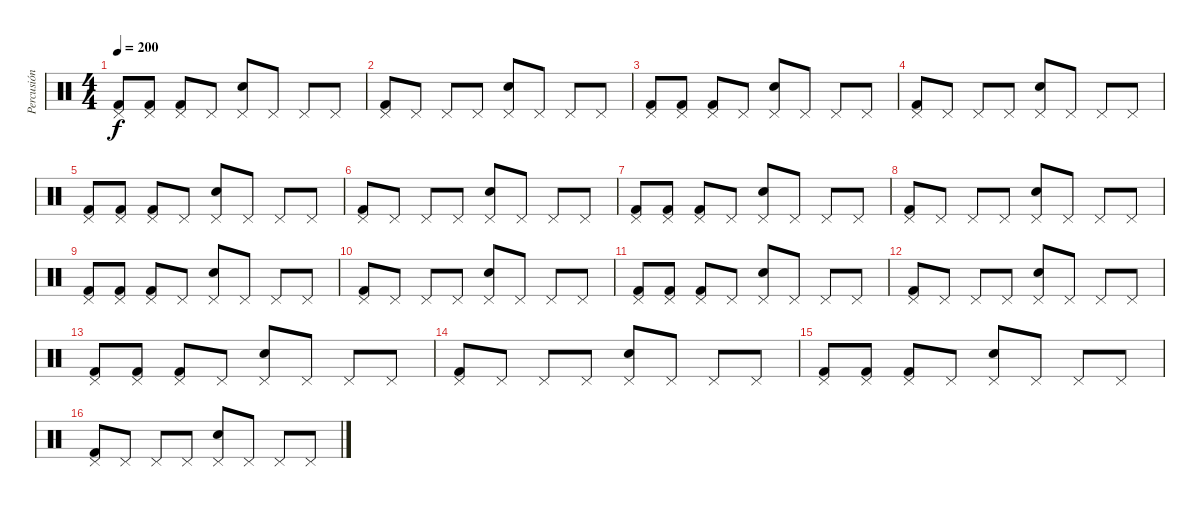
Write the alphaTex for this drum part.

\track ("Percusión" "Percusión") {instrument percussion}
\staff {score}
\articulation defaults
\ts (4 4)
\tempo 200
\clef neutral
\ks c
("Kick (hit) 2" "Pedal Hi-Hat (hit)").8{dy f} ("Kick (hit) 2" "Pedal Hi-Hat (hit)").8 ("Kick (hit) 2" "Pedal Hi-Hat (hit)").8 "Pedal Hi-Hat (hit)".8 ("Electric Snare (hit)" "Pedal Hi-Hat (hit)").8 "Pedal Hi-Hat (hit)".8 "Pedal Hi-Hat (hit)".8 "Pedal Hi-Hat (hit)".8 |
("Kick (hit) 2" "Pedal Hi-Hat (hit)").8 "Pedal Hi-Hat (hit)".8 "Pedal Hi-Hat (hit)".8 "Pedal Hi-Hat (hit)".8 ("Electric Snare (hit)" "Pedal Hi-Hat (hit)").8 "Pedal Hi-Hat (hit)".8 "Pedal Hi-Hat (hit)".8 "Pedal Hi-Hat (hit)".8 |
("Kick (hit) 2" "Pedal Hi-Hat (hit)").8 ("Kick (hit) 2" "Pedal Hi-Hat (hit)").8 ("Kick (hit) 2" "Pedal Hi-Hat (hit)").8 "Pedal Hi-Hat (hit)".8 ("Electric Snare (hit)" "Pedal Hi-Hat (hit)").8 "Pedal Hi-Hat (hit)".8 "Pedal Hi-Hat (hit)".8 "Pedal Hi-Hat (hit)".8 |
("Kick (hit) 2" "Pedal Hi-Hat (hit)").8 "Pedal Hi-Hat (hit)".8 "Pedal Hi-Hat (hit)".8 "Pedal Hi-Hat (hit)".8 ("Electric Snare (hit)" "Pedal Hi-Hat (hit)").8 "Pedal Hi-Hat (hit)".8 "Pedal Hi-Hat (hit)".8 "Pedal Hi-Hat (hit)".8 |
("Kick (hit) 2" "Pedal Hi-Hat (hit)").8 ("Kick (hit) 2" "Pedal Hi-Hat (hit)").8 ("Kick (hit) 2" "Pedal Hi-Hat (hit)").8 "Pedal Hi-Hat (hit)".8 ("Electric Snare (hit)" "Pedal Hi-Hat (hit)").8 "Pedal Hi-Hat (hit)".8 "Pedal Hi-Hat (hit)".8 "Pedal Hi-Hat (hit)".8 |
("Kick (hit) 2" "Pedal Hi-Hat (hit)").8 "Pedal Hi-Hat (hit)".8 "Pedal Hi-Hat (hit)".8 "Pedal Hi-Hat (hit)".8 ("Electric Snare (hit)" "Pedal Hi-Hat (hit)").8 "Pedal Hi-Hat (hit)".8 "Pedal Hi-Hat (hit)".8 "Pedal Hi-Hat (hit)".8 |
("Kick (hit) 2" "Pedal Hi-Hat (hit)").8 ("Kick (hit) 2" "Pedal Hi-Hat (hit)").8 ("Kick (hit) 2" "Pedal Hi-Hat (hit)").8 "Pedal Hi-Hat (hit)".8 ("Electric Snare (hit)" "Pedal Hi-Hat (hit)").8 "Pedal Hi-Hat (hit)".8 "Pedal Hi-Hat (hit)".8 "Pedal Hi-Hat (hit)".8 |
("Kick (hit) 2" "Pedal Hi-Hat (hit)").8 "Pedal Hi-Hat (hit)".8 "Pedal Hi-Hat (hit)".8 "Pedal Hi-Hat (hit)".8 ("Electric Snare (hit)" "Pedal Hi-Hat (hit)").8 "Pedal Hi-Hat (hit)".8 "Pedal Hi-Hat (hit)".8 "Pedal Hi-Hat (hit)".8 |
("Kick (hit) 2" "Pedal Hi-Hat (hit)").8 ("Kick (hit) 2" "Pedal Hi-Hat (hit)").8 ("Kick (hit) 2" "Pedal Hi-Hat (hit)").8 "Pedal Hi-Hat (hit)".8 ("Electric Snare (hit)" "Pedal Hi-Hat (hit)").8 "Pedal Hi-Hat (hit)".8 "Pedal Hi-Hat (hit)".8 "Pedal Hi-Hat (hit)".8 |
("Kick (hit) 2" "Pedal Hi-Hat (hit)").8 "Pedal Hi-Hat (hit)".8 "Pedal Hi-Hat (hit)".8 "Pedal Hi-Hat (hit)".8 ("Electric Snare (hit)" "Pedal Hi-Hat (hit)").8 "Pedal Hi-Hat (hit)".8 "Pedal Hi-Hat (hit)".8 "Pedal Hi-Hat (hit)".8 |
("Kick (hit) 2" "Pedal Hi-Hat (hit)").8 ("Kick (hit) 2" "Pedal Hi-Hat (hit)").8 ("Kick (hit) 2" "Pedal Hi-Hat (hit)").8 "Pedal Hi-Hat (hit)".8 ("Electric Snare (hit)" "Pedal Hi-Hat (hit)").8 "Pedal Hi-Hat (hit)".8 "Pedal Hi-Hat (hit)".8 "Pedal Hi-Hat (hit)".8 |
("Kick (hit) 2" "Pedal Hi-Hat (hit)").8 "Pedal Hi-Hat (hit)".8 "Pedal Hi-Hat (hit)".8 "Pedal Hi-Hat (hit)".8 ("Electric Snare (hit)" "Pedal Hi-Hat (hit)").8 "Pedal Hi-Hat (hit)".8 "Pedal Hi-Hat (hit)".8 "Pedal Hi-Hat (hit)".8 |
("Kick (hit) 2" "Pedal Hi-Hat (hit)").8 ("Kick (hit) 2" "Pedal Hi-Hat (hit)").8 ("Kick (hit) 2" "Pedal Hi-Hat (hit)").8 "Pedal Hi-Hat (hit)".8 ("Electric Snare (hit)" "Pedal Hi-Hat (hit)").8 "Pedal Hi-Hat (hit)".8 "Pedal Hi-Hat (hit)".8 "Pedal Hi-Hat (hit)".8 |
("Kick (hit) 2" "Pedal Hi-Hat (hit)").8 "Pedal Hi-Hat (hit)".8 "Pedal Hi-Hat (hit)".8 "Pedal Hi-Hat (hit)".8 ("Electric Snare (hit)" "Pedal Hi-Hat (hit)").8 "Pedal Hi-Hat (hit)".8 "Pedal Hi-Hat (hit)".8 "Pedal Hi-Hat (hit)".8 |
("Kick (hit) 2" "Pedal Hi-Hat (hit)").8 ("Kick (hit) 2" "Pedal Hi-Hat (hit)").8 ("Kick (hit) 2" "Pedal Hi-Hat (hit)").8 "Pedal Hi-Hat (hit)".8 ("Electric Snare (hit)" "Pedal Hi-Hat (hit)").8 "Pedal Hi-Hat (hit)".8 "Pedal Hi-Hat (hit)".8 "Pedal Hi-Hat (hit)".8 |
("Kick (hit) 2" "Pedal Hi-Hat (hit)").8 "Pedal Hi-Hat (hit)".8 "Pedal Hi-Hat (hit)".8 "Pedal Hi-Hat (hit)".8 ("Electric Snare (hit)" "Pedal Hi-Hat (hit)").8 "Pedal Hi-Hat (hit)".8 "Pedal Hi-Hat (hit)".8 "Pedal Hi-Hat (hit)".8
